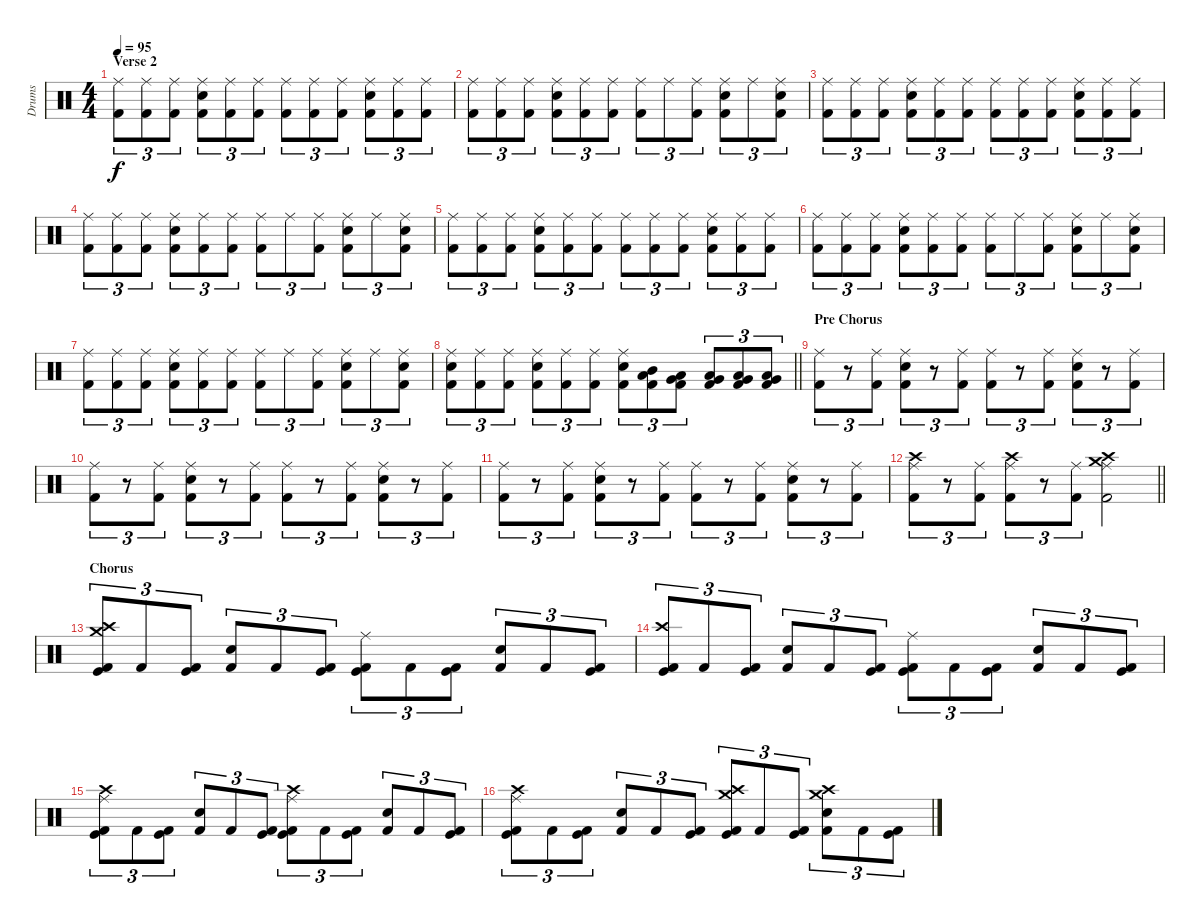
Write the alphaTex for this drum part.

\track ("Drums" "Drums") {instrument percussion}
\staff {score}
\articulation defaults
\ts (4 4)
\section ("" "Verse 2")
\tempo 95
\clef neutral
\ks c
("Ride (middle)" "Kick (hit) 2").8{tu (3 2) dy f} ("Ride (middle)" "Kick (hit) 2").8{tu (3 2)} ("Ride (middle)" "Kick (hit) 2").8{tu (3 2)} ("Ride (middle)" "Kick (hit) 2" "Electric Snare (hit)").8{tu (3 2)} ("Ride (middle)" "Kick (hit) 2").8{tu (3 2)} ("Ride (middle)" "Kick (hit) 2").8{tu (3 2)} ("Ride (middle)" "Kick (hit) 2").8{tu (3 2)} ("Ride (middle)" "Kick (hit) 2").8{tu (3 2)} ("Ride (middle)" "Kick (hit) 2").8{tu (3 2)} ("Ride (middle)" "Kick (hit) 2" "Electric Snare (hit)").8{tu (3 2)} ("Ride (middle)" "Kick (hit) 2").8{tu (3 2)} ("Ride (middle)" "Kick (hit) 2").8{tu (3 2)} |
("Ride (middle)" "Kick (hit) 2").8{tu (3 2)} ("Ride (middle)" "Kick (hit) 2").8{tu (3 2)} ("Ride (middle)" "Kick (hit) 2").8{tu (3 2)} ("Ride (middle)" "Kick (hit) 2" "Electric Snare (hit)").8{tu (3 2)} ("Ride (middle)" "Kick (hit) 2").8{tu (3 2)} ("Ride (middle)" "Kick (hit) 2").8{tu (3 2)} ("Ride (middle)" "Kick (hit) 2").8{tu (3 2)} "Ride (middle)".8{tu (3 2)} ("Ride (middle)" "Kick (hit) 2").8{tu (3 2)} ("Ride (middle)" "Kick (hit) 2" "Electric Snare (hit)").8{tu (3 2)} "Ride (middle)".8{tu (3 2)} ("Ride (middle)" "Kick (hit) 2" "Snare (hit) 2").8{tu (3 2)} |
("Ride (middle)" "Kick (hit) 2").8{tu (3 2)} ("Ride (middle)" "Kick (hit) 2").8{tu (3 2)} ("Ride (middle)" "Kick (hit) 2").8{tu (3 2)} ("Ride (middle)" "Kick (hit) 2" "Electric Snare (hit)").8{tu (3 2)} ("Ride (middle)" "Kick (hit) 2").8{tu (3 2)} ("Ride (middle)" "Kick (hit) 2").8{tu (3 2)} ("Ride (middle)" "Kick (hit) 2").8{tu (3 2)} ("Ride (middle)" "Kick (hit) 2").8{tu (3 2)} ("Ride (middle)" "Kick (hit) 2").8{tu (3 2)} ("Ride (middle)" "Kick (hit) 2" "Electric Snare (hit)").8{tu (3 2)} ("Ride (middle)" "Kick (hit) 2").8{tu (3 2)} ("Ride (middle)" "Kick (hit) 2").8{tu (3 2)} |
("Ride (middle)" "Kick (hit) 2").8{tu (3 2)} ("Ride (middle)" "Kick (hit) 2").8{tu (3 2)} ("Ride (middle)" "Kick (hit) 2").8{tu (3 2)} ("Ride (middle)" "Kick (hit) 2" "Electric Snare (hit)").8{tu (3 2)} ("Ride (middle)" "Kick (hit) 2").8{tu (3 2)} ("Ride (middle)" "Kick (hit) 2").8{tu (3 2)} ("Ride (middle)" "Kick (hit) 2").8{tu (3 2)} "Ride (middle)".8{tu (3 2)} ("Ride (middle)" "Kick (hit) 2").8{tu (3 2)} ("Ride (middle)" "Kick (hit) 2" "Electric Snare (hit)").8{tu (3 2)} "Ride (middle)".8{tu (3 2)} ("Ride (middle)" "Kick (hit) 2" "Snare (hit) 2").8{tu (3 2)} |
("Ride (middle)" "Kick (hit) 2").8{tu (3 2)} ("Ride (middle)" "Kick (hit) 2").8{tu (3 2)} ("Ride (middle)" "Kick (hit) 2").8{tu (3 2)} ("Ride (middle)" "Kick (hit) 2" "Electric Snare (hit)").8{tu (3 2)} ("Ride (middle)" "Kick (hit) 2").8{tu (3 2)} ("Ride (middle)" "Kick (hit) 2").8{tu (3 2)} ("Ride (middle)" "Kick (hit) 2").8{tu (3 2)} ("Ride (middle)" "Kick (hit) 2").8{tu (3 2)} ("Ride (middle)" "Kick (hit) 2").8{tu (3 2)} ("Ride (middle)" "Kick (hit) 2" "Electric Snare (hit)").8{tu (3 2)} ("Ride (middle)" "Kick (hit) 2").8{tu (3 2)} ("Ride (middle)" "Kick (hit) 2").8{tu (3 2)} |
("Ride (middle)" "Kick (hit) 2").8{tu (3 2)} ("Ride (middle)" "Kick (hit) 2").8{tu (3 2)} ("Ride (middle)" "Kick (hit) 2").8{tu (3 2)} ("Ride (middle)" "Kick (hit) 2" "Electric Snare (hit)").8{tu (3 2)} ("Ride (middle)" "Kick (hit) 2").8{tu (3 2)} ("Ride (middle)" "Kick (hit) 2").8{tu (3 2)} ("Ride (middle)" "Kick (hit) 2").8{tu (3 2)} "Ride (middle)".8{tu (3 2)} ("Ride (middle)" "Kick (hit) 2").8{tu (3 2)} ("Ride (middle)" "Kick (hit) 2" "Electric Snare (hit)").8{tu (3 2)} "Ride (middle)".8{tu (3 2)} ("Ride (middle)" "Kick (hit) 2" "Snare (hit) 2").8{tu (3 2)} |
("Ride (middle)" "Kick (hit) 2").8{tu (3 2)} ("Ride (middle)" "Kick (hit) 2").8{tu (3 2)} ("Ride (middle)" "Kick (hit) 2").8{tu (3 2)} ("Ride (middle)" "Kick (hit) 2" "Electric Snare (hit)").8{tu (3 2)} ("Ride (middle)" "Kick (hit) 2").8{tu (3 2)} ("Ride (middle)" "Kick (hit) 2").8{tu (3 2)} ("Ride (middle)" "Kick (hit) 2").8{tu (3 2)} "Ride (middle)".8{tu (3 2)} ("Ride (middle)" "Kick (hit) 2").8{tu (3 2)} ("Ride (middle)" "Kick (hit) 2" "Electric Snare (hit)").8{tu (3 2)} "Ride (middle)".8{tu (3 2)} ("Ride (middle)" "Kick (hit) 2" "Snare (hit) 2").8{tu (3 2)} |
\barLineRight lightlight
("Ride (middle)" "Kick (hit) 2" "Snare (hit) 2").8{tu (3 2)} ("Ride (middle)" "Kick (hit) 2").8{tu (3 2)} ("Ride (middle)" "Kick (hit) 2").8{tu (3 2)} ("Ride (middle)" "Kick (hit) 2" "Snare (hit) 2").8{tu (3 2)} ("Ride (middle)" "Kick (hit) 2").8{tu (3 2)} ("Ride (middle)" "Kick (hit) 2").8{tu (3 2)} ("Ride (middle)" "Kick (hit) 2" "Snare (hit) 2").8{tu (3 2)} ("Low Tom (hit)" "Mid Tom (hit)" "Kick (hit) 2").8{tu (3 2)} ("Very Low Tom (hit)" "Low Tom (hit)" "Kick (hit) 2").8{tu (3 2)} ("Very Low Tom (hit)" "Low Tom (hit)" "Kick (hit) 2").8{tu (3 2)} ("Low Floor Tom (hit)" "Very Low Tom (hit)" "Kick (hit) 2").8{tu (3 2)} ("Low Floor Tom (hit)" "Very Low Tom (hit)" "Kick (hit) 2").8{tu (3 2)} |
\section ("" "Pre Chorus")
("Ride (middle)" "Kick (hit) 2").8{tu (3 2)} r.8{tu (3 2)} ("Ride (middle)" "Kick (hit) 2").8{tu (3 2)} ("Ride (middle)" "Kick (hit) 2" "Snare (hit) 2").8{tu (3 2)} r.8{tu (3 2)} ("Ride (middle)" "Kick (hit) 2").8{tu (3 2)} ("Ride (middle)" "Kick (hit) 2").8{tu (3 2)} r.8{tu (3 2)} ("Ride (middle)" "Kick (hit) 2").8{tu (3 2)} ("Ride (middle)" "Kick (hit) 2" "Snare (hit) 2").8{tu (3 2)} r.8{tu (3 2)} ("Ride (middle)" "Kick (hit) 2").8{tu (3 2)} |
("Ride (middle)" "Kick (hit) 2").8{tu (3 2)} r.8{tu (3 2)} ("Ride (middle)" "Kick (hit) 2").8{tu (3 2)} ("Ride (middle)" "Kick (hit) 2" "Snare (hit) 2").8{tu (3 2)} r.8{tu (3 2)} ("Ride (middle)" "Kick (hit) 2").8{tu (3 2)} ("Ride (middle)" "Kick (hit) 2").8{tu (3 2)} r.8{tu (3 2)} ("Ride (middle)" "Kick (hit) 2").8{tu (3 2)} ("Ride (middle)" "Kick (hit) 2" "Snare (hit) 2").8{tu (3 2)} r.8{tu (3 2)} ("Ride (middle)" "Kick (hit) 2").8{tu (3 2)} |
("Ride (middle)" "Kick (hit) 2").8{tu (3 2)} r.8{tu (3 2)} ("Ride (middle)" "Kick (hit) 2").8{tu (3 2)} ("Ride (middle)" "Kick (hit) 2" "Snare (hit) 2").8{tu (3 2)} r.8{tu (3 2)} ("Ride (middle)" "Kick (hit) 2").8{tu (3 2)} ("Ride (middle)" "Kick (hit) 2").8{tu (3 2)} r.8{tu (3 2)} ("Ride (middle)" "Kick (hit) 2").8{tu (3 2)} ("Ride (middle)" "Kick (hit) 2" "Snare (hit) 2").8{tu (3 2)} r.8{tu (3 2)} ("Ride (middle)" "Kick (hit) 2").8{tu (3 2)} |
\barLineRight lightlight
("Ride (middle)" "Kick (hit) 2" "Crash high (hit)").8{tu (3 2)} r.8{tu (3 2)} ("Ride (middle)" "Kick (hit) 2").8{tu (3 2)} ("Ride (middle)" "Kick (hit) 2" "Crash high (hit)").8{tu (3 2)} r.8{tu (3 2)} ("Ride (middle)" "Kick (hit) 2").8{tu (3 2)} ("Crash medium (hit)" "Ride (middle)" "Kick (hit) 2" "Crash high (hit)").2 |
\section ("" "Chorus")
("Crash medium (hit)" "Kick (hit)" "Kick (hit) 2" "Crash high (hit)").8{tu (3 2)} "Kick (hit) 2".8{tu (3 2)} ("Kick (hit)" "Kick (hit) 2").8{tu (3 2)} ("Snare (hit) 2" "Kick (hit) 2").8{tu (3 2)} "Kick (hit) 2".8{tu (3 2)} ("Kick (hit)" "Kick (hit) 2").8{tu (3 2)} ("Ride (middle)" "Kick (hit)" "Kick (hit) 2").8{tu (3 2)} "Kick (hit) 2".8{tu (3 2)} ("Kick (hit)" "Kick (hit) 2").8{tu (3 2)} ("Snare (hit) 2" "Kick (hit) 2").8{tu (3 2)} "Kick (hit) 2".8{tu (3 2)} ("Kick (hit)" "Kick (hit) 2").8{tu (3 2)} |
("Kick (hit)" "Kick (hit) 2" "Crash high (hit)").8{tu (3 2)} "Kick (hit) 2".8{tu (3 2)} ("Kick (hit)" "Kick (hit) 2").8{tu (3 2)} ("Snare (hit) 2" "Kick (hit) 2").8{tu (3 2)} "Kick (hit) 2".8{tu (3 2)} ("Kick (hit)" "Kick (hit) 2").8{tu (3 2)} ("Ride (middle)" "Kick (hit)" "Kick (hit) 2").8{tu (3 2)} "Kick (hit) 2".8{tu (3 2)} ("Kick (hit)" "Kick (hit) 2").8{tu (3 2)} ("Snare (hit) 2" "Kick (hit) 2").8{tu (3 2)} "Kick (hit) 2".8{tu (3 2)} ("Kick (hit)" "Kick (hit) 2").8{tu (3 2)} |
("Ride (middle)" "Kick (hit)" "Kick (hit) 2" "Crash high (hit)").8{tu (3 2)} "Kick (hit) 2".8{tu (3 2)} ("Kick (hit)" "Kick (hit) 2").8{tu (3 2)} ("Snare (hit) 2" "Kick (hit) 2").8{tu (3 2)} "Kick (hit) 2".8{tu (3 2)} ("Kick (hit)" "Kick (hit) 2").8{tu (3 2)} ("Ride (middle)" "Kick (hit)" "Kick (hit) 2" "Crash high (hit)").8{tu (3 2)} "Kick (hit) 2".8{tu (3 2)} ("Kick (hit)" "Kick (hit) 2").8{tu (3 2)} ("Snare (hit) 2" "Kick (hit) 2").8{tu (3 2)} "Kick (hit) 2".8{tu (3 2)} ("Kick (hit)" "Kick (hit) 2").8{tu (3 2)} |
("Ride (middle)" "Kick (hit)" "Kick (hit) 2" "Crash high (hit)").8{tu (3 2)} "Kick (hit) 2".8{tu (3 2)} ("Kick (hit)" "Kick (hit) 2").8{tu (3 2)} ("Snare (hit) 2" "Kick (hit) 2").8{tu (3 2)} "Kick (hit) 2".8{tu (3 2)} ("Kick (hit)" "Kick (hit) 2").8{tu (3 2)} ("Crash medium (hit)" "Kick (hit)" "Kick (hit) 2" "Crash high (hit)").8{tu (3 2)} "Kick (hit) 2".8{tu (3 2)} ("Kick (hit)" "Kick (hit) 2").8{tu (3 2)} ("Crash medium (hit)" "Snare (hit) 2" "Kick (hit) 2" "Crash high (hit)").8{tu (3 2)} "Kick (hit) 2".8{tu (3 2)} ("Kick (hit)" "Kick (hit) 2").8{tu (3 2)}
